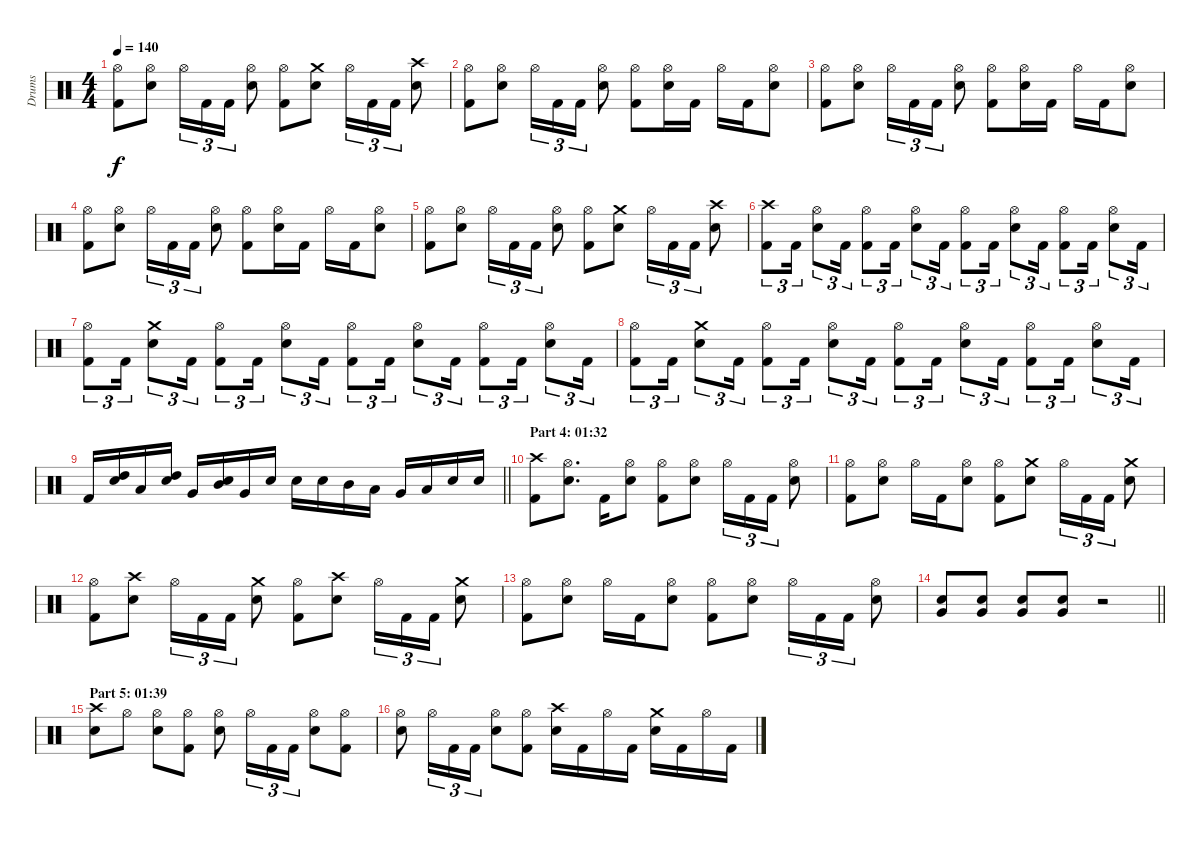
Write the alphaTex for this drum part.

\track ("Drums" "Drums") {instrument percussion}
\staff {score}
\articulation defaults
\ts (4 4)
\tempo 140
\clef neutral
\ks c
("Hi-Hat (open)" "Kick (hit) 2").8{dy f} ("Hi-Hat (open)" "Electric Snare (hit)").8 "Hi-Hat (open)".16{tu (3 2)} "Kick (hit) 2".16{tu (3 2)} "Kick (hit) 2".16{tu (3 2)} ("Hi-Hat (open)" "Electric Snare (hit)").8 ("Hi-Hat (open)" "Kick (hit) 2").8 ("Crash medium (hit)" "Electric Snare (hit)").8 "Hi-Hat (open)".16{tu (3 2)} "Kick (hit) 2".16{tu (3 2)} "Kick (hit) 2".16{tu (3 2)} ("Crash high (hit)" "Electric Snare (hit)").8 |
("Hi-Hat (open)" "Kick (hit) 2").8 ("Hi-Hat (open)" "Electric Snare (hit)").8 "Hi-Hat (open)".16{tu (3 2)} "Kick (hit) 2".16{tu (3 2)} "Kick (hit) 2".16{tu (3 2)} ("Hi-Hat (open)" "Electric Snare (hit)").8 ("Hi-Hat (open)" "Kick (hit) 2").8 ("Hi-Hat (open)" "Electric Snare (hit)").16 "Kick (hit) 2".16 "Hi-Hat (open)".16 "Kick (hit) 2".16 ("Hi-Hat (open)" "Electric Snare (hit)").8 |
("Hi-Hat (open)" "Kick (hit) 2").8 ("Hi-Hat (open)" "Electric Snare (hit)").8 "Hi-Hat (open)".16{tu (3 2)} "Kick (hit) 2".16{tu (3 2)} "Kick (hit) 2".16{tu (3 2)} ("Hi-Hat (open)" "Electric Snare (hit)").8 ("Hi-Hat (open)" "Kick (hit) 2").8 ("Hi-Hat (open)" "Electric Snare (hit)").16 "Kick (hit) 2".16 "Hi-Hat (open)".16 "Kick (hit) 2".16 ("Hi-Hat (open)" "Electric Snare (hit)").8 |
("Hi-Hat (open)" "Kick (hit) 2").8 ("Hi-Hat (open)" "Electric Snare (hit)").8 "Hi-Hat (open)".16{tu (3 2)} "Kick (hit) 2".16{tu (3 2)} "Kick (hit) 2".16{tu (3 2)} ("Hi-Hat (open)" "Electric Snare (hit)").8 ("Hi-Hat (open)" "Kick (hit) 2").8 ("Hi-Hat (open)" "Electric Snare (hit)").16 "Kick (hit) 2".16 "Hi-Hat (open)".16 "Kick (hit) 2".16 ("Hi-Hat (open)" "Electric Snare (hit)").8 |
("Hi-Hat (open)" "Kick (hit) 2").8 ("Hi-Hat (open)" "Electric Snare (hit)").8 "Hi-Hat (open)".16{tu (3 2)} "Kick (hit) 2".16{tu (3 2)} "Kick (hit) 2".16{tu (3 2)} ("Hi-Hat (open)" "Electric Snare (hit)").8 ("Hi-Hat (open)" "Kick (hit) 2").8 ("Crash medium (hit)" "Electric Snare (hit)").8 "Hi-Hat (open)".16{tu (3 2)} "Kick (hit) 2".16{tu (3 2)} "Kick (hit) 2".16{tu (3 2)} ("Crash high (hit)" "Electric Snare (hit)").8 |
("Crash high (hit)" "Kick (hit) 2").8{tu (3 2)} "Kick (hit) 2".16{tu (3 2)} ("Hi-Hat (open)" "Electric Snare (hit)").8{tu (3 2)} "Kick (hit) 2".16{tu (3 2)} ("Hi-Hat (open)" "Kick (hit) 2").8{tu (3 2)} "Kick (hit) 2".16{tu (3 2)} ("Hi-Hat (open)" "Electric Snare (hit)").8{tu (3 2)} "Kick (hit) 2".16{tu (3 2)} ("Hi-Hat (open)" "Kick (hit) 2").8{tu (3 2)} "Kick (hit) 2".16{tu (3 2)} ("Hi-Hat (open)" "Electric Snare (hit)").8{tu (3 2)} "Kick (hit) 2".16{tu (3 2)} ("Hi-Hat (open)" "Kick (hit) 2").8{tu (3 2)} "Kick (hit) 2".16{tu (3 2)} ("Hi-Hat (open)" "Electric Snare (hit)").8{tu (3 2)} "Kick (hit) 2".16{tu (3 2)} |
("Hi-Hat (open)" "Kick (hit) 2").8{tu (3 2)} "Kick (hit) 2".16{tu (3 2)} ("Crash medium (hit)" "Electric Snare (hit)").8{tu (3 2)} "Kick (hit) 2".16{tu (3 2)} ("Hi-Hat (open)" "Kick (hit) 2").8{tu (3 2)} "Kick (hit) 2".16{tu (3 2)} ("Hi-Hat (open)" "Electric Snare (hit)").8{tu (3 2)} "Kick (hit) 2".16{tu (3 2)} ("Hi-Hat (open)" "Kick (hit) 2").8{tu (3 2)} "Kick (hit) 2".16{tu (3 2)} ("Hi-Hat (open)" "Electric Snare (hit)").8{tu (3 2)} "Kick (hit) 2".16{tu (3 2)} ("Hi-Hat (open)" "Kick (hit) 2").8{tu (3 2)} "Kick (hit) 2".16{tu (3 2)} ("Hi-Hat (open)" "Electric Snare (hit)").8{tu (3 2)} "Kick (hit) 2".16{tu (3 2)} |
("Hi-Hat (open)" "Kick (hit) 2").8{tu (3 2)} "Kick (hit) 2".16{tu (3 2)} ("Crash medium (hit)" "Electric Snare (hit)").8{tu (3 2)} "Kick (hit) 2".16{tu (3 2)} ("Hi-Hat (open)" "Kick (hit) 2").8{tu (3 2)} "Kick (hit) 2".16{tu (3 2)} ("Hi-Hat (open)" "Electric Snare (hit)").8{tu (3 2)} "Kick (hit) 2".16{tu (3 2)} ("Hi-Hat (open)" "Kick (hit) 2").8{tu (3 2)} "Kick (hit) 2".16{tu (3 2)} ("Hi-Hat (open)" "Electric Snare (hit)").8{tu (3 2)} "Kick (hit) 2".16{tu (3 2)} ("Hi-Hat (open)" "Kick (hit) 2").8{tu (3 2)} "Kick (hit) 2".16{tu (3 2)} ("Hi-Hat (open)" "Electric Snare (hit)").8{tu (3 2)} "Kick (hit) 2".16{tu (3 2)} |
\barLineRight lightlight "Kick (hit) 2".16
("Electric Snare (hit)" "High Tom (hit)").16 "Low Tom (hit)".16 ("Electric Snare (hit)" "High Tom (hit)").16 "Very Low Tom (hit)".16 ("Electric Snare (hit)" "Mid Tom (hit)").16 "Very Low Tom (hit)".16 "Electric Snare (hit)".16 "Electric Snare (hit)".16 "Electric Snare (hit)".16 "Mid Tom (hit)".16 "Low Tom (hit)".16 "Very Low Tom (hit)".16 "Low Floor Tom (hit)".16 "Electric Snare (hit)".16 "Electric Snare (hit)".16 |
\section ("" "Part 4: 01:32")
("Crash high (hit)" "Kick (hit) 2").8 ("Hi-Hat (open)" "Electric Snare (hit)").8{d} "Kick (hit) 2".16 ("Hi-Hat (open)" "Electric Snare (hit)").8 ("Hi-Hat (open)" "Kick (hit) 2").8 ("Hi-Hat (open)" "Electric Snare (hit)").8 "Hi-Hat (open)".16{tu (3 2)} "Kick (hit) 2".16{tu (3 2)} "Kick (hit) 2".16{tu (3 2)} ("Hi-Hat (open)" "Electric Snare (hit)").8 |
("Hi-Hat (open)" "Kick (hit) 2").8 ("Hi-Hat (open)" "Electric Snare (hit)").8 "Hi-Hat (open)".16 "Kick (hit) 2".16 ("Hi-Hat (open)" "Electric Snare (hit)").8 ("Hi-Hat (open)" "Kick (hit) 2").8 ("Crash medium (hit)" "Electric Snare (hit)").8 "Hi-Hat (open)".16{tu (3 2)} "Kick (hit) 2".16{tu (3 2)} "Kick (hit) 2".16{tu (3 2)} ("Crash medium (hit)" "Electric Snare (hit)").8 |
("Hi-Hat (open)" "Kick (hit) 2").8 ("Crash high (hit)" "Electric Snare (hit)").8 "Hi-Hat (open)".16{tu (3 2)} "Kick (hit) 2".16{tu (3 2)} "Kick (hit) 2".16{tu (3 2)} ("Crash medium (hit)" "Electric Snare (hit)").8 ("Hi-Hat (open)" "Kick (hit) 2").8 ("Crash high (hit)" "Electric Snare (hit)").8 "Hi-Hat (open)".16{tu (3 2)} "Kick (hit) 2".16{tu (3 2)} "Kick (hit) 2".16{tu (3 2)} ("Crash medium (hit)" "Electric Snare (hit)").8 |
("Hi-Hat (open)" "Kick (hit) 2").8 ("Hi-Hat (open)" "Electric Snare (hit)").8 "Hi-Hat (open)".16 "Kick (hit) 2".16 ("Hi-Hat (open)" "Electric Snare (hit)").8 ("Hi-Hat (open)" "Kick (hit) 2").8 ("Hi-Hat (open)" "Electric Snare (hit)").8 "Hi-Hat (open)".16{tu (3 2)} "Kick (hit) 2".16{tu (3 2)} "Kick (hit) 2".16{tu (3 2)} ("Hi-Hat (open)" "Electric Snare (hit)").8 |
\barLineRight lightlight
("Electric Snare (hit)" "Very Low Tom (hit)").8 ("Electric Snare (hit)" "Very Low Tom (hit)").8 ("Electric Snare (hit)" "Very Low Tom (hit)").8 ("Electric Snare (hit)" "Very Low Tom (hit)").8 r.2 |
\section ("" "Part 5: 01:39")
("Crash high (hit)" "Electric Snare (hit)").8 "Hi-Hat (open)".8 ("Hi-Hat (open)" "Electric Snare (hit)").8 ("Hi-Hat (open)" "Kick (hit) 2").8 ("Hi-Hat (open)" "Electric Snare (hit)").8 "Hi-Hat (open)".16{tu (3 2)} "Kick (hit) 2".16{tu (3 2)} "Kick (hit) 2".16{tu (3 2)} ("Hi-Hat (open)" "Electric Snare (hit)").8 ("Hi-Hat (open)" "Kick (hit) 2").8 |
("Hi-Hat (open)" "Electric Snare (hit)").8 "Hi-Hat (open)".16{tu (3 2)} "Kick (hit) 2".16{tu (3 2)} "Kick (hit) 2".16{tu (3 2)} ("Hi-Hat (open)" "Electric Snare (hit)").8 ("Hi-Hat (open)" "Kick (hit) 2").8 ("Crash high (hit)" "Electric Snare (hit)").16 "Kick (hit) 2".16 "Hi-Hat (open)".16 "Kick (hit) 2".16 ("Crash medium (hit)" "Electric Snare (hit)").16 "Kick (hit) 2".16 "Hi-Hat (open)".16 "Kick (hit) 2".16
